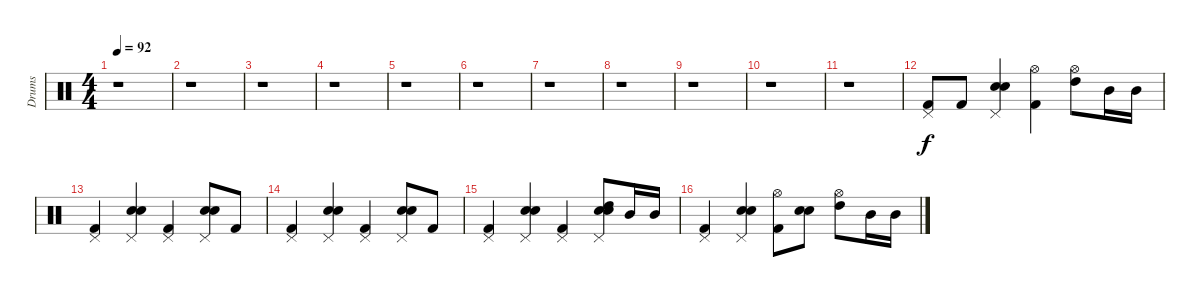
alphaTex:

\track ("Drums" "Drums") {instrument percussion}
\staff {score}
\articulation defaults
\ts (4 4)
\tempo 92
\clef neutral
\ks c
r.1{dy f} |
r.1 |
r.1 |
r.1 |
r.1 |
r.1 |
r.1 |
r.1 |
r.1 |
r.1 |
r.1 |
("Kick (hit) 2" "Pedal Hi-Hat (hit)").8 "Kick (hit) 2".8 ("Snare (hit) 2" "Electric Snare (hit)" "Pedal Hi-Hat (hit)").4 ("Hi-Hat (open)" "Kick (hit) 2").4 ("Hi-Hat (open)" "High Tom (hit)").8 "Mid Tom (hit)".16 "Mid Tom (hit)".16 |
("Kick (hit) 2" "Pedal Hi-Hat (hit)").4 ("Snare (hit) 2" "Electric Snare (hit)" "Pedal Hi-Hat (hit)").4 ("Kick (hit) 2" "Pedal Hi-Hat (hit)").4 ("Snare (hit) 2" "Electric Snare (hit)" "Pedal Hi-Hat (hit)").8 "Kick (hit) 2".8 |
("Kick (hit) 2" "Pedal Hi-Hat (hit)").4 ("Snare (hit) 2" "Electric Snare (hit)" "Pedal Hi-Hat (hit)").4 ("Kick (hit) 2" "Pedal Hi-Hat (hit)").4 ("Snare (hit) 2" "Electric Snare (hit)" "Pedal Hi-Hat (hit)").8 "Kick (hit) 2".8 |
("Kick (hit) 2" "Pedal Hi-Hat (hit)").4 ("Snare (hit) 2" "Electric Snare (hit)" "Pedal Hi-Hat (hit)").4 ("Kick (hit) 2" "Pedal Hi-Hat (hit)").4 ("Snare (hit) 2" "Electric Snare (hit)" "High Tom (hit)" "Pedal Hi-Hat (hit)").8 "Mid Tom (hit)".16 "Mid Tom (hit)".16 |
("Kick (hit) 2" "Pedal Hi-Hat (hit)").4 ("Snare (hit) 2" "Electric Snare (hit)" "Pedal Hi-Hat (hit)").4 ("Hi-Hat (open)" "Kick (hit) 2").8 ("Snare (hit) 2" "Electric Snare (hit)").8 ("Hi-Hat (open)" "High Tom (hit)").8 "Mid Tom (hit)".16 "Mid Tom (hit)".16
